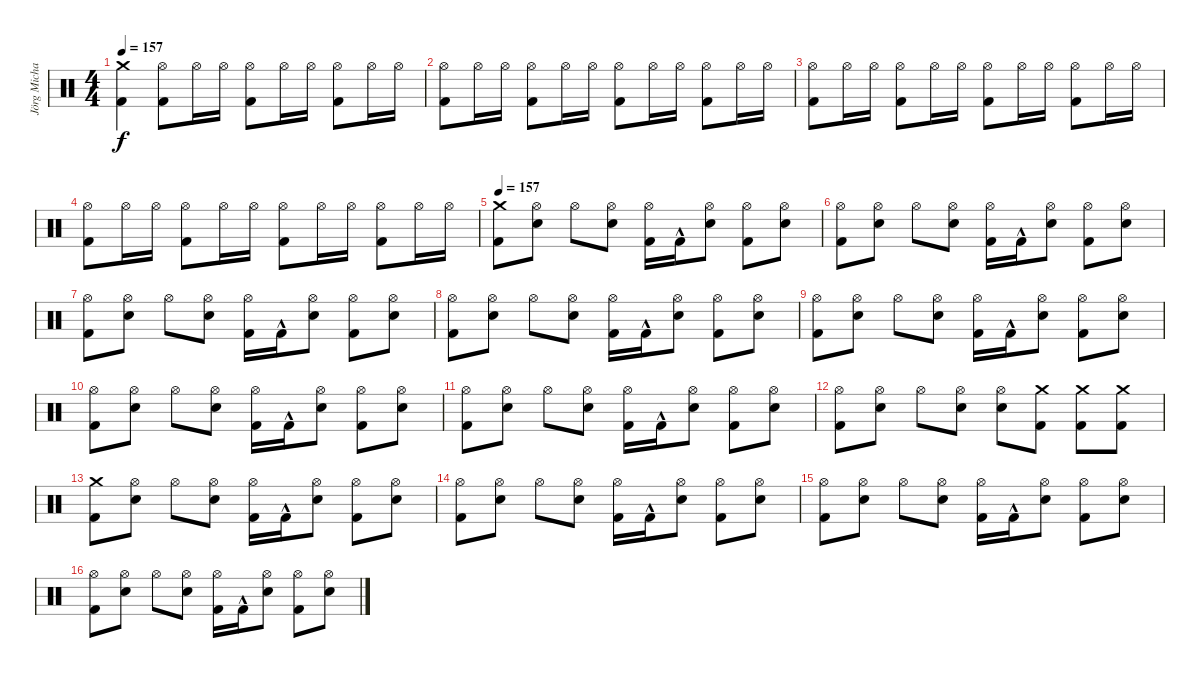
\track ("Jörg Michael" "Jörg Micha") {instrument percussion}
\staff {score}
\articulation defaults
\ts (4 4)
\tempo 157
\clef neutral
\ks c
("Crash medium (hit)" "Kick (hit) 2").4{dy f} ("Hi-Hat (open)" "Kick (hit) 2").8 "Hi-Hat (open)".16 "Hi-Hat (open)".16 ("Hi-Hat (open)" "Kick (hit) 2").8 "Hi-Hat (open)".16 "Hi-Hat (open)".16 ("Hi-Hat (open)" "Kick (hit) 2").8 "Hi-Hat (open)".16 "Hi-Hat (open)".16 |
("Hi-Hat (open)" "Kick (hit) 2").8 "Hi-Hat (open)".16 "Hi-Hat (open)".16 ("Hi-Hat (open)" "Kick (hit) 2").8 "Hi-Hat (open)".16 "Hi-Hat (open)".16 ("Hi-Hat (open)" "Kick (hit) 2").8 "Hi-Hat (open)".16 "Hi-Hat (open)".16 ("Hi-Hat (open)" "Kick (hit) 2").8 "Hi-Hat (open)".16 "Hi-Hat (open)".16 |
("Hi-Hat (open)" "Kick (hit) 2").8 "Hi-Hat (open)".16 "Hi-Hat (open)".16 ("Hi-Hat (open)" "Kick (hit) 2").8 "Hi-Hat (open)".16 "Hi-Hat (open)".16 ("Hi-Hat (open)" "Kick (hit) 2").8 "Hi-Hat (open)".16 "Hi-Hat (open)".16 ("Hi-Hat (open)" "Kick (hit) 2").8 "Hi-Hat (open)".16 "Hi-Hat (open)".16 |
("Hi-Hat (open)" "Kick (hit) 2").8 "Hi-Hat (open)".16 "Hi-Hat (open)".16 ("Hi-Hat (open)" "Kick (hit) 2").8 "Hi-Hat (open)".16 "Hi-Hat (open)".16 ("Hi-Hat (open)" "Kick (hit) 2").8 "Hi-Hat (open)".16 "Hi-Hat (open)".16 ("Hi-Hat (open)" "Kick (hit) 2").8 "Hi-Hat (open)".16 "Hi-Hat (open)".16 |
\tempo 157
("Kick (hit) 2" "Crash medium (hit)").8 ("Snare (hit) 2" "Hi-Hat (open)").8 "Hi-Hat (open)".8 ("Snare (hit) 2" "Hi-Hat (open)").8 ("Kick (hit) 2" "Hi-Hat (open)").16 "Kick (hit) 2"{hac}.16 ("Snare (hit) 2" "Hi-Hat (open)").8 ("Kick (hit) 2" "Hi-Hat (open)").8 ("Snare (hit) 2" "Hi-Hat (open)").8 |
("Hi-Hat (open)" "Kick (hit) 2").8 ("Snare (hit) 2" "Hi-Hat (open)").8 "Hi-Hat (open)".8 ("Snare (hit) 2" "Hi-Hat (open)").8 ("Kick (hit) 2" "Hi-Hat (open)").16 "Kick (hit) 2"{hac}.16 ("Snare (hit) 2" "Hi-Hat (open)").8 ("Kick (hit) 2" "Hi-Hat (open)").8 ("Snare (hit) 2" "Hi-Hat (open)").8 |
("Hi-Hat (open)" "Kick (hit) 2").8 ("Snare (hit) 2" "Hi-Hat (open)").8 "Hi-Hat (open)".8 ("Snare (hit) 2" "Hi-Hat (open)").8 ("Kick (hit) 2" "Hi-Hat (open)").16 "Kick (hit) 2"{hac}.16 ("Snare (hit) 2" "Hi-Hat (open)").8 ("Kick (hit) 2" "Hi-Hat (open)").8 ("Snare (hit) 2" "Hi-Hat (open)").8 |
("Hi-Hat (open)" "Kick (hit) 2").8 ("Snare (hit) 2" "Hi-Hat (open)").8 "Hi-Hat (open)".8 ("Snare (hit) 2" "Hi-Hat (open)").8 ("Kick (hit) 2" "Hi-Hat (open)").16 "Kick (hit) 2"{hac}.16 ("Snare (hit) 2" "Hi-Hat (open)").8 ("Kick (hit) 2" "Hi-Hat (open)").8 ("Snare (hit) 2" "Hi-Hat (open)").8 |
("Hi-Hat (open)" "Kick (hit) 2").8 ("Snare (hit) 2" "Hi-Hat (open)").8 "Hi-Hat (open)".8 ("Snare (hit) 2" "Hi-Hat (open)").8 ("Kick (hit) 2" "Hi-Hat (open)").16 "Kick (hit) 2"{hac}.16 ("Snare (hit) 2" "Hi-Hat (open)").8 ("Kick (hit) 2" "Hi-Hat (open)").8 ("Snare (hit) 2" "Hi-Hat (open)").8 |
("Hi-Hat (open)" "Kick (hit) 2").8 ("Snare (hit) 2" "Hi-Hat (open)").8 "Hi-Hat (open)".8 ("Snare (hit) 2" "Hi-Hat (open)").8 ("Kick (hit) 2" "Hi-Hat (open)").16 "Kick (hit) 2"{hac}.16 ("Snare (hit) 2" "Hi-Hat (open)").8 ("Kick (hit) 2" "Hi-Hat (open)").8 ("Snare (hit) 2" "Hi-Hat (open)").8 |
("Hi-Hat (open)" "Kick (hit) 2").8 ("Snare (hit) 2" "Hi-Hat (open)").8 "Hi-Hat (open)".8 ("Snare (hit) 2" "Hi-Hat (open)").8 ("Kick (hit) 2" "Hi-Hat (open)").16 "Kick (hit) 2"{hac}.16 ("Snare (hit) 2" "Hi-Hat (open)").8 ("Kick (hit) 2" "Hi-Hat (open)").8 ("Snare (hit) 2" "Hi-Hat (open)").8 |
("Hi-Hat (open)" "Kick (hit) 2").8 ("Snare (hit) 2" "Hi-Hat (open)").8 "Hi-Hat (open)".8 ("Snare (hit) 2" "Hi-Hat (open)").8 ("Snare (hit) 2" "Hi-Hat (open)").8 ("Kick (hit) 2" "Crash medium (hit)").8 ("Crash medium (hit)" "Kick (hit) 2").8 ("Kick (hit) 2" "Crash medium (hit)").8 |
("Kick (hit) 2" "Crash medium (hit)").8 ("Snare (hit) 2" "Hi-Hat (open)").8 "Hi-Hat (open)".8 ("Snare (hit) 2" "Hi-Hat (open)").8 ("Kick (hit) 2" "Hi-Hat (open)").16 "Kick (hit) 2"{hac}.16 ("Snare (hit) 2" "Hi-Hat (open)").8 ("Kick (hit) 2" "Hi-Hat (open)").8 ("Snare (hit) 2" "Hi-Hat (open)").8 |
("Hi-Hat (open)" "Kick (hit) 2").8 ("Snare (hit) 2" "Hi-Hat (open)").8 "Hi-Hat (open)".8 ("Snare (hit) 2" "Hi-Hat (open)").8 ("Kick (hit) 2" "Hi-Hat (open)").16 "Kick (hit) 2"{hac}.16 ("Snare (hit) 2" "Hi-Hat (open)").8 ("Kick (hit) 2" "Hi-Hat (open)").8 ("Snare (hit) 2" "Hi-Hat (open)").8 |
("Hi-Hat (open)" "Kick (hit) 2").8 ("Snare (hit) 2" "Hi-Hat (open)").8 "Hi-Hat (open)".8 ("Snare (hit) 2" "Hi-Hat (open)").8 ("Kick (hit) 2" "Hi-Hat (open)").16 "Kick (hit) 2"{hac}.16 ("Snare (hit) 2" "Hi-Hat (open)").8 ("Kick (hit) 2" "Hi-Hat (open)").8 ("Snare (hit) 2" "Hi-Hat (open)").8 |
("Hi-Hat (open)" "Kick (hit) 2").8 ("Snare (hit) 2" "Hi-Hat (open)").8 "Hi-Hat (open)".8 ("Snare (hit) 2" "Hi-Hat (open)").8 ("Kick (hit) 2" "Hi-Hat (open)").16 "Kick (hit) 2"{hac}.16 ("Snare (hit) 2" "Hi-Hat (open)").8 ("Kick (hit) 2" "Hi-Hat (open)").8 ("Snare (hit) 2" "Hi-Hat (open)").8
